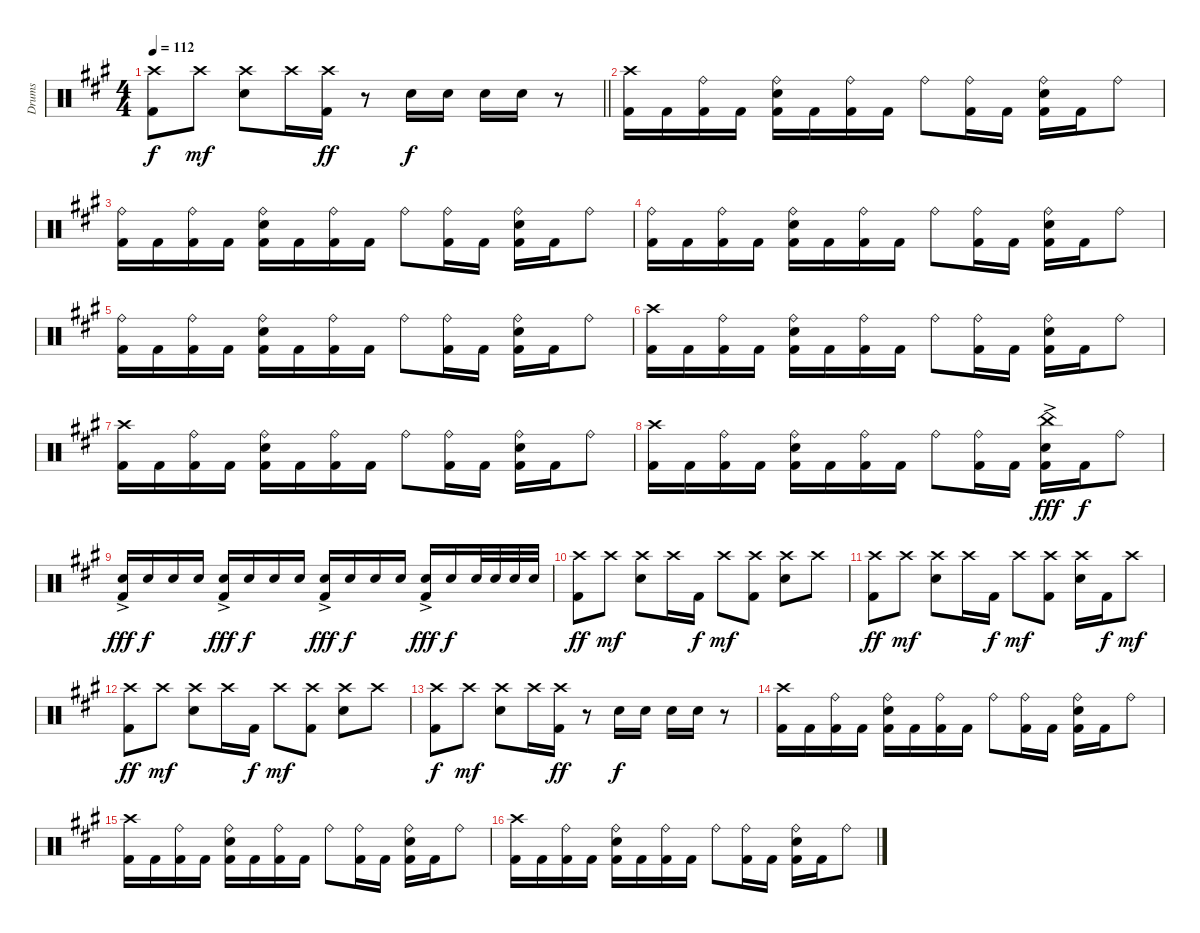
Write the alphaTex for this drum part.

\track ("Drums" "Drums") {instrument percussion}
\staff {score}
\articulation defaults
\ts (4 4)
\tempo 112
\clef neutral
\barLineRight lightlight
\ks f#minor
("Crash high (hit)" "Kick (hit) 2").8{dy f} "Crash high (hit)".8{dy mf} ("Crash high (hit)" "Snare (hit) 2").8 "Crash high (hit)".16 ("Crash high (hit)" "Kick (hit) 2").16{dy ff} r.8 "Snare (hit) 2".16{dy f} "Snare (hit) 2".16 "Snare (hit) 2".16 "Snare (hit) 2".16 r.8 |
("Crash high (hit)" "Kick (hit) 2").16 "Kick (hit) 2".16 ("Ride (bell)" "Kick (hit) 2").16 "Kick (hit) 2".16 ("Ride (bell)" "Snare (hit) 2" "Kick (hit) 2").16 "Kick (hit) 2".16 ("Ride (bell)" "Kick (hit) 2").16 "Kick (hit) 2".16 "Ride (bell)".8 ("Ride (bell)" "Kick (hit) 2").16 "Kick (hit) 2".16 ("Ride (bell)" "Snare (hit) 2" "Kick (hit) 2").16 "Kick (hit) 2".16 "Ride (bell)".8 |
("Ride (bell)" "Kick (hit) 2").16 "Kick (hit) 2".16 ("Ride (bell)" "Kick (hit) 2").16 "Kick (hit) 2".16 ("Ride (bell)" "Snare (hit) 2" "Kick (hit) 2").16 "Kick (hit) 2".16 ("Ride (bell)" "Kick (hit) 2").16 "Kick (hit) 2".16 "Ride (bell)".8 ("Ride (bell)" "Kick (hit) 2").16 "Kick (hit) 2".16 ("Ride (bell)" "Snare (hit) 2" "Kick (hit) 2").16 "Kick (hit) 2".16 "Ride (bell)".8 |
("Ride (bell)" "Kick (hit) 2").16 "Kick (hit) 2".16 ("Ride (bell)" "Kick (hit) 2").16 "Kick (hit) 2".16 ("Ride (bell)" "Snare (hit) 2" "Kick (hit) 2").16 "Kick (hit) 2".16 ("Ride (bell)" "Kick (hit) 2").16 "Kick (hit) 2".16 "Ride (bell)".8 ("Ride (bell)" "Kick (hit) 2").16 "Kick (hit) 2".16 ("Ride (bell)" "Snare (hit) 2" "Kick (hit) 2").16 "Kick (hit) 2".16 "Ride (bell)".8 |
("Ride (bell)" "Kick (hit) 2").16 "Kick (hit) 2".16 ("Ride (bell)" "Kick (hit) 2").16 "Kick (hit) 2".16 ("Ride (bell)" "Snare (hit) 2" "Kick (hit) 2").16 "Kick (hit) 2".16 ("Ride (bell)" "Kick (hit) 2").16 "Kick (hit) 2".16 "Ride (bell)".8 ("Ride (bell)" "Kick (hit) 2").16 "Kick (hit) 2".16 ("Ride (bell)" "Snare (hit) 2" "Kick (hit) 2").16 "Kick (hit) 2".16 "Ride (bell)".8 |
("Crash high (hit)" "Kick (hit) 2").16 "Kick (hit) 2".16 ("Ride (bell)" "Kick (hit) 2").16 "Kick (hit) 2".16 ("Ride (bell)" "Snare (hit) 2" "Kick (hit) 2").16 "Kick (hit) 2".16 ("Ride (bell)" "Kick (hit) 2").16 "Kick (hit) 2".16 "Ride (bell)".8 ("Ride (bell)" "Kick (hit) 2").16 "Kick (hit) 2".16 ("Ride (bell)" "Snare (hit) 2" "Kick (hit) 2").16 "Kick (hit) 2".16 "Ride (bell)".8 |
("Crash high (hit)" "Kick (hit) 2").16 "Kick (hit) 2".16 ("Ride (bell)" "Kick (hit) 2").16 "Kick (hit) 2".16 ("Ride (bell)" "Snare (hit) 2" "Kick (hit) 2").16 "Kick (hit) 2".16 ("Ride (bell)" "Kick (hit) 2").16 "Kick (hit) 2".16 "Ride (bell)".8 ("Ride (bell)" "Kick (hit) 2").16 "Kick (hit) 2".16 ("Ride (bell)" "Snare (hit) 2" "Kick (hit) 2").16 "Kick (hit) 2".16 "Ride (bell)".8 |
("Crash high (hit)" "Kick (hit) 2").16 "Kick (hit) 2".16 ("Ride (bell)" "Kick (hit) 2").16 "Kick (hit) 2".16 ("Ride (bell)" "Snare (hit) 2" "Kick (hit) 2").16 "Kick (hit) 2".16 ("Ride (bell)" "Kick (hit) 2").16 "Kick (hit) 2".16 "Ride (bell)".8 ("Ride (bell)" "Kick (hit) 2").16 "Kick (hit) 2".16 ("China (hit)"{ac} "Snare (hit) 2" "Kick (hit) 2").16{dy fff} "Kick (hit) 2".16{dy f} "Ride (bell)".8 |
("Snare (hit) 2" "Kick (hit) 2"{ac}).16{dy fff} "Snare (hit) 2".16{dy f} "Snare (hit) 2".16 "Snare (hit) 2".16 ("Snare (hit) 2" "Kick (hit) 2"{ac}).16{dy fff} "Snare (hit) 2".16{dy f} "Snare (hit) 2".16 "Snare (hit) 2".16 ("Snare (hit) 2" "Kick (hit) 2"{ac}).16{dy fff} "Snare (hit) 2".16{dy f} "Snare (hit) 2".16 "Snare (hit) 2".16 ("Snare (hit) 2" "Kick (hit) 2"{ac}).16{dy fff} "Snare (hit) 2".16{dy f} "Snare (hit) 2".32 "Snare (hit) 2".32 "Snare (hit) 2".32 "Snare (hit) 2".32 |
("Crash high (hit)" "Kick (hit) 2").8{dy ff} "Crash high (hit)".8{dy mf} ("Crash high (hit)" "Snare (hit) 2").8 "Crash high (hit)".16 "Kick (hit) 2".16{dy f} "Crash high (hit)".8{dy mf} ("Crash high (hit)" "Kick (hit) 2").8 ("Crash high (hit)" "Snare (hit) 2").8 "Crash high (hit)".8 |
("Crash high (hit)" "Kick (hit) 2").8{dy ff} "Crash high (hit)".8{dy mf} ("Crash high (hit)" "Snare (hit) 2").8 "Crash high (hit)".16 "Kick (hit) 2".16{dy f} "Crash high (hit)".8{dy mf} ("Crash high (hit)" "Kick (hit) 2").8 ("Crash high (hit)" "Snare (hit) 2").16 "Kick (hit) 2".16{dy f} "Crash high (hit)".8{dy mf} |
("Crash high (hit)" "Kick (hit) 2").8{dy ff} "Crash high (hit)".8{dy mf} ("Crash high (hit)" "Snare (hit) 2").8 "Crash high (hit)".16 "Kick (hit) 2".16{dy f} "Crash high (hit)".8{dy mf} ("Crash high (hit)" "Kick (hit) 2").8 ("Crash high (hit)" "Snare (hit) 2").8 "Crash high (hit)".8 |
("Crash high (hit)" "Kick (hit) 2").8{dy f} "Crash high (hit)".8{dy mf} ("Crash high (hit)" "Snare (hit) 2").8 "Crash high (hit)".16 ("Crash high (hit)" "Kick (hit) 2").16{dy ff} r.8 "Snare (hit) 2".16{dy f} "Snare (hit) 2".16 "Snare (hit) 2".16 "Snare (hit) 2".16 r.8 |
("Crash high (hit)" "Kick (hit) 2").16 "Kick (hit) 2".16 ("Ride (bell)" "Kick (hit) 2").16 "Kick (hit) 2".16 ("Ride (bell)" "Snare (hit) 2" "Kick (hit) 2").16 "Kick (hit) 2".16 ("Ride (bell)" "Kick (hit) 2").16 "Kick (hit) 2".16 "Ride (bell)".8 ("Ride (bell)" "Kick (hit) 2").16 "Kick (hit) 2".16 ("Ride (bell)" "Snare (hit) 2" "Kick (hit) 2").16 "Kick (hit) 2".16 "Ride (bell)".8 |
("Crash high (hit)" "Kick (hit) 2").16 "Kick (hit) 2".16 ("Ride (bell)" "Kick (hit) 2").16 "Kick (hit) 2".16 ("Ride (bell)" "Snare (hit) 2" "Kick (hit) 2").16 "Kick (hit) 2".16 ("Ride (bell)" "Kick (hit) 2").16 "Kick (hit) 2".16 "Ride (bell)".8 ("Ride (bell)" "Kick (hit) 2").16 "Kick (hit) 2".16 ("Ride (bell)" "Snare (hit) 2" "Kick (hit) 2").16 "Kick (hit) 2".16 "Ride (bell)".8 |
("Crash high (hit)" "Kick (hit) 2").16 "Kick (hit) 2".16 ("Ride (bell)" "Kick (hit) 2").16 "Kick (hit) 2".16 ("Ride (bell)" "Snare (hit) 2" "Kick (hit) 2").16 "Kick (hit) 2".16 ("Ride (bell)" "Kick (hit) 2").16 "Kick (hit) 2".16 "Ride (bell)".8 ("Ride (bell)" "Kick (hit) 2").16 "Kick (hit) 2".16 ("Ride (bell)" "Snare (hit) 2" "Kick (hit) 2").16 "Kick (hit) 2".16 "Ride (bell)".8
